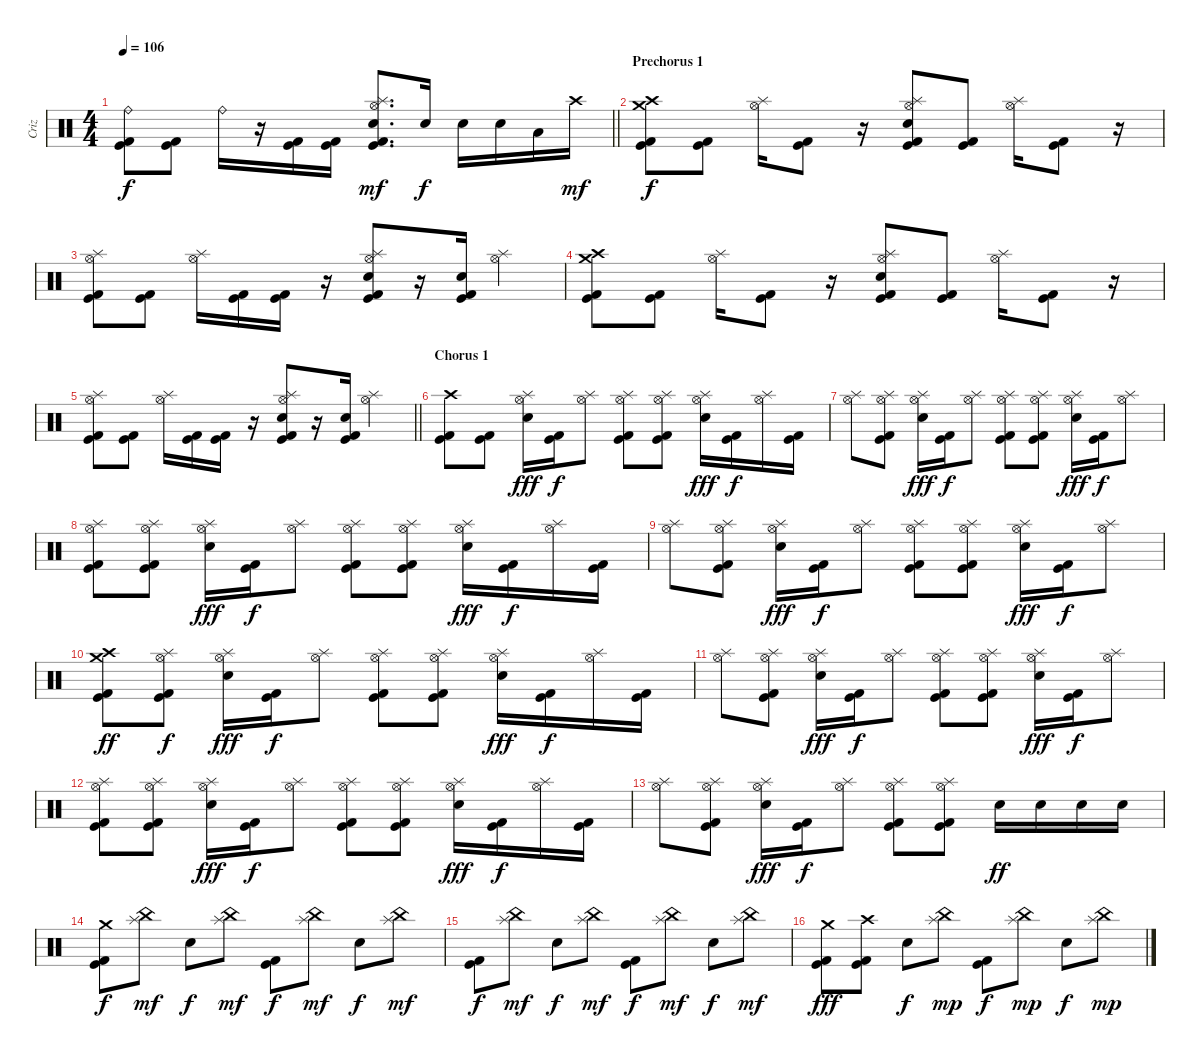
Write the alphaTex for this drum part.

\track ("Criz" "Criz") {instrument percussion}
\staff {score}
\articulation defaults
\ts (4 4)
\tempo 106
\clef neutral
\barLineRight lightlight
\ks c
("Ride (bell)" "Kick (hit)" "Kick (hit) 2").8{dy f} ("Kick (hit)" "Kick (hit) 2").8 "Ride (bell)".16 r.16 ("Kick (hit)" "Kick (hit) 2").16 ("Kick (hit)" "Kick (hit) 2").16 ("Splash (hit)" "Hi-Hat (open)" "Snare (hit) 2" "Kick (hit)" "Kick (hit) 2").8{d dy mf} "Snare (hit) 2".16{dy f} "Snare (hit) 2".16 "Snare (hit) 2".16 "Low Tom (hit)".16 "Crash high (hit)".16{dy mf} |
\section ("" "Prechorus 1")
("Crash high (hit)" "Crash medium (hit)" "Kick (hit)" "Kick (hit) 2").8{dy f} ("Kick (hit)" "Kick (hit) 2").8 ("Splash (hit)" "Hi-Hat (open)").16 ("Kick (hit)" "Kick (hit) 2").8 r.16 ("Splash (hit)" "Hi-Hat (open)" "Snare (hit) 2" "Kick (hit)" "Kick (hit) 2").8 ("Kick (hit)" "Kick (hit) 2").8 ("Splash (hit)" "Hi-Hat (open)").16 ("Kick (hit)" "Kick (hit) 2").8 r.16 |
("Splash (hit)" "Hi-Hat (open)" "Kick (hit)" "Kick (hit) 2").8 ("Kick (hit)" "Kick (hit) 2").8 ("Splash (hit)" "Hi-Hat (open)").16 ("Kick (hit)" "Kick (hit) 2").16 ("Kick (hit)" "Kick (hit) 2").16 r.16 ("Splash (hit)" "Hi-Hat (open)" "Snare (hit) 2" "Kick (hit)" "Kick (hit) 2").8 r.16 ("Snare (hit) 2" "Kick (hit)" "Kick (hit) 2").16 ("Splash (hit)" "Hi-Hat (open)").4 |
("Crash high (hit)" "Crash medium (hit)" "Kick (hit)" "Kick (hit) 2").8 ("Kick (hit)" "Kick (hit) 2").8 ("Splash (hit)" "Hi-Hat (open)").16 ("Kick (hit)" "Kick (hit) 2").8 r.16 ("Splash (hit)" "Hi-Hat (open)" "Snare (hit) 2" "Kick (hit)" "Kick (hit) 2").8 ("Kick (hit)" "Kick (hit) 2").8 ("Splash (hit)" "Hi-Hat (open)").16 ("Kick (hit)" "Kick (hit) 2").8 r.16 |
\barLineRight lightlight
("Splash (hit)" "Hi-Hat (open)" "Kick (hit)" "Kick (hit) 2").8 ("Kick (hit)" "Kick (hit) 2").8 ("Splash (hit)" "Hi-Hat (open)").16 ("Kick (hit)" "Kick (hit) 2").16 ("Kick (hit)" "Kick (hit) 2").16 r.16 ("Splash (hit)" "Hi-Hat (open)" "Snare (hit) 2" "Kick (hit)" "Kick (hit) 2").8 r.16 ("Snare (hit) 2" "Kick (hit)" "Kick (hit) 2").16 ("Splash (hit)" "Hi-Hat (open)").4 |
\section ("" "Chorus 1")
("Crash high (hit)" "Kick (hit)" "Kick (hit) 2").8 ("Kick (hit)" "Kick (hit) 2").8 ("Splash (hit)" "Hi-Hat (open)" "Snare (hit) 2").16{dy fff} ("Kick (hit)" "Kick (hit) 2").16{dy f} ("Splash (hit)" "Hi-Hat (open)").8 ("Splash (hit)" "Hi-Hat (open)" "Kick (hit)" "Kick (hit) 2").8 ("Splash (hit)" "Hi-Hat (open)" "Kick (hit)" "Kick (hit) 2").8 ("Splash (hit)" "Hi-Hat (open)" "Snare (hit) 2").16{dy fff} ("Kick (hit)" "Kick (hit) 2").16{dy f} ("Splash (hit)" "Hi-Hat (open)").16 ("Kick (hit)" "Kick (hit) 2").16 |
("Splash (hit)" "Hi-Hat (open)").8 ("Splash (hit)" "Hi-Hat (open)" "Kick (hit)" "Kick (hit) 2").8 ("Splash (hit)" "Hi-Hat (open)" "Snare (hit) 2").16{dy fff} ("Kick (hit)" "Kick (hit) 2").16{dy f} ("Splash (hit)" "Hi-Hat (open)").8 ("Splash (hit)" "Hi-Hat (open)" "Kick (hit)" "Kick (hit) 2").8 ("Splash (hit)" "Hi-Hat (open)" "Kick (hit)" "Kick (hit) 2").8 ("Splash (hit)" "Hi-Hat (open)" "Snare (hit) 2").16{dy fff} ("Kick (hit)" "Kick (hit) 2").16{dy f} ("Splash (hit)" "Hi-Hat (open)").8 |
("Splash (hit)" "Hi-Hat (open)" "Kick (hit)" "Kick (hit) 2").8 ("Splash (hit)" "Hi-Hat (open)" "Kick (hit)" "Kick (hit) 2").8 ("Splash (hit)" "Hi-Hat (open)" "Snare (hit) 2").16{dy fff} ("Kick (hit)" "Kick (hit) 2").16{dy f} ("Splash (hit)" "Hi-Hat (open)").8 ("Splash (hit)" "Hi-Hat (open)" "Kick (hit)" "Kick (hit) 2").8 ("Splash (hit)" "Hi-Hat (open)" "Kick (hit)" "Kick (hit) 2").8 ("Splash (hit)" "Hi-Hat (open)" "Snare (hit) 2").16{dy fff} ("Kick (hit)" "Kick (hit) 2").16{dy f} ("Splash (hit)" "Hi-Hat (open)").16 ("Kick (hit)" "Kick (hit) 2").16 |
("Splash (hit)" "Hi-Hat (open)").8 ("Splash (hit)" "Hi-Hat (open)" "Kick (hit)" "Kick (hit) 2").8 ("Splash (hit)" "Hi-Hat (open)" "Snare (hit) 2").16{dy fff} ("Kick (hit)" "Kick (hit) 2").16{dy f} ("Splash (hit)" "Hi-Hat (open)").8 ("Splash (hit)" "Hi-Hat (open)" "Kick (hit)" "Kick (hit) 2").8 ("Splash (hit)" "Hi-Hat (open)" "Kick (hit)" "Kick (hit) 2").8 ("Splash (hit)" "Hi-Hat (open)" "Snare (hit) 2").16{dy fff} ("Kick (hit)" "Kick (hit) 2").16{dy f} ("Splash (hit)" "Hi-Hat (open)").8 |
("Crash high (hit)" "Crash medium (hit)" "Kick (hit)" "Kick (hit) 2").8{dy ff} ("Splash (hit)" "Hi-Hat (open)" "Kick (hit)" "Kick (hit) 2").8{dy f} ("Splash (hit)" "Hi-Hat (open)" "Snare (hit) 2").16{dy fff} ("Kick (hit)" "Kick (hit) 2").16{dy f} ("Splash (hit)" "Hi-Hat (open)").8 ("Splash (hit)" "Hi-Hat (open)" "Kick (hit)" "Kick (hit) 2").8 ("Splash (hit)" "Hi-Hat (open)" "Kick (hit)" "Kick (hit) 2").8 ("Splash (hit)" "Hi-Hat (open)" "Snare (hit) 2").16{dy fff} ("Kick (hit)" "Kick (hit) 2").16{dy f} ("Splash (hit)" "Hi-Hat (open)").16 ("Kick (hit)" "Kick (hit) 2").16 |
("Splash (hit)" "Hi-Hat (open)").8 ("Splash (hit)" "Hi-Hat (open)" "Kick (hit)" "Kick (hit) 2").8 ("Splash (hit)" "Hi-Hat (open)" "Snare (hit) 2").16{dy fff} ("Kick (hit)" "Kick (hit) 2").16{dy f} ("Splash (hit)" "Hi-Hat (open)").8 ("Splash (hit)" "Hi-Hat (open)" "Kick (hit)" "Kick (hit) 2").8 ("Splash (hit)" "Hi-Hat (open)" "Kick (hit)" "Kick (hit) 2").8 ("Splash (hit)" "Hi-Hat (open)" "Snare (hit) 2").16{dy fff} ("Kick (hit)" "Kick (hit) 2").16{dy f} ("Splash (hit)" "Hi-Hat (open)").8 |
("Splash (hit)" "Hi-Hat (open)" "Kick (hit)" "Kick (hit) 2").8 ("Splash (hit)" "Hi-Hat (open)" "Kick (hit)" "Kick (hit) 2").8 ("Splash (hit)" "Hi-Hat (open)" "Snare (hit) 2").16{dy fff} ("Kick (hit)" "Kick (hit) 2").16{dy f} ("Splash (hit)" "Hi-Hat (open)").8 ("Splash (hit)" "Hi-Hat (open)" "Kick (hit)" "Kick (hit) 2").8 ("Splash (hit)" "Hi-Hat (open)" "Kick (hit)" "Kick (hit) 2").8 ("Splash (hit)" "Hi-Hat (open)" "Snare (hit) 2").16{dy fff} ("Kick (hit)" "Kick (hit) 2").16{dy f} ("Splash (hit)" "Hi-Hat (open)").16 ("Kick (hit)" "Kick (hit) 2").16 |
("Splash (hit)" "Hi-Hat (open)").8 ("Splash (hit)" "Hi-Hat (open)" "Kick (hit)" "Kick (hit) 2").8 ("Splash (hit)" "Hi-Hat (open)" "Snare (hit) 2").16{dy fff} ("Kick (hit)" "Kick (hit) 2").16{dy f} ("Splash (hit)" "Hi-Hat (open)").8 ("Splash (hit)" "Hi-Hat (open)" "Kick (hit)" "Kick (hit) 2").8 ("Splash (hit)" "Hi-Hat (open)" "Kick (hit)" "Kick (hit) 2").8 "Snare (hit) 2".16{dy ff} "Snare (hit) 2".16 "Snare (hit) 2".16 "Snare (hit) 2".16 |
("Crash medium (hit)" "Kick (hit)" "Kick (hit) 2").8{dy f} ("Splash (hit)" "China (hit)").8{dy mf} "Snare (hit) 2".8{dy f} ("Splash (hit)" "China (hit)").8{dy mf} ("Kick (hit)" "Kick (hit) 2").8{dy f} ("Splash (hit)" "China (hit)").8{dy mf} "Snare (hit) 2".8{dy f} ("Splash (hit)" "China (hit)").8{dy mf} |
("Kick (hit)" "Kick (hit) 2").8{dy f} ("Splash (hit)" "China (hit)").8{dy mf} "Snare (hit) 2".8{dy f} ("Splash (hit)" "China (hit)").8{dy mf} ("Kick (hit)" "Kick (hit) 2").8{dy f} ("Splash (hit)" "China (hit)").8{dy mf} "Snare (hit) 2".8{dy f} ("Splash (hit)" "China (hit)").8{dy mf} |
("Crash medium (hit)" "Kick (hit)" "Kick (hit) 2").8{dy fff} ("Crash high (hit)" "Kick (hit)" "Kick (hit) 2").8 "Snare (hit) 2".8{dy f} ("Splash (hit)" "China (hit)").8{dy mp} ("Kick (hit)" "Kick (hit) 2").8{dy f} ("Splash (hit)" "China (hit)").8{dy mp} "Snare (hit) 2".8{dy f} ("Splash (hit)" "China (hit)").8{dy mp}
